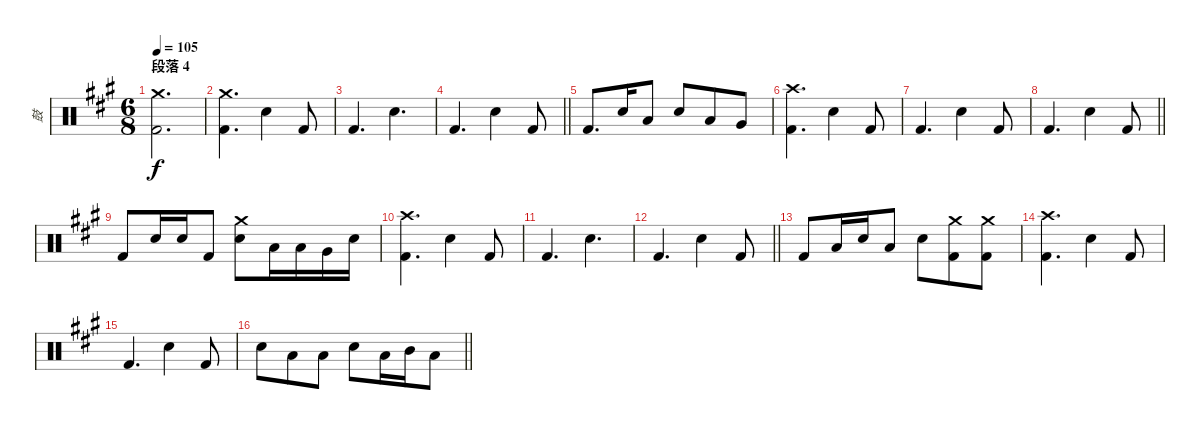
\track ("鼓" "鼓") {instrument percussion}
\staff {score}
\articulation defaults
\ts (6 8)
\section ("" "段落 4")
\tempo 105
\clef neutral
\ks a
("Crash medium (hit)" "Kick (hit) 2").2{d dy f} |
("Crash medium (hit)" "Kick (hit) 2").4{d} "Electric Snare (hit)".4 "Kick (hit) 2".8 |
"Kick (hit) 2".4{d} "Electric Snare (hit)".4{d} |
\barLineRight lightlight "Kick (hit) 2".4{d} "Electric Snare (hit)".4 "Kick (hit) 2".8
|
"Kick (hit) 2".8{d} "Electric Snare (hit)".16 "Low Tom (hit)".8 "Electric Snare (hit)".8 "Low Tom (hit)".8 "Very Low Tom (hit)".8 |
("Crash high (hit)" "Kick (hit) 2").4{d} "Electric Snare (hit)".4 "Kick (hit) 2".8 |
"Kick (hit) 2".4{d} "Electric Snare (hit)".4 "Kick (hit) 2".8 |
\barLineRight lightlight "Kick (hit) 2".4{d} "Electric Snare (hit)".4 "Kick (hit) 2".8
|
"Kick (hit) 2".8 "Electric Snare (hit)".16 "Electric Snare (hit)".16 "Kick (hit) 2".8 ("Crash medium (hit)" "Electric Snare (hit)").8 "Low Tom (hit)".16 "Low Tom (hit)".16 "Very Low Tom (hit)".16 "Electric Snare (hit)".16 |
("Crash high (hit)" "Kick (hit) 2").4{d} "Electric Snare (hit)".4 "Kick (hit) 2".8 |
"Kick (hit) 2".4{d} "Electric Snare (hit)".4{d} |
\barLineRight lightlight "Kick (hit) 2".4{d} "Electric Snare (hit)".4 "Kick (hit) 2".8
|
"Kick (hit) 2".8 "Low Tom (hit)".16 "Electric Snare (hit)".16 "Low Tom (hit)".8 "Electric Snare (hit)".8 ("Crash medium (hit)" "Kick (hit) 2").8 ("Crash medium (hit)" "Kick (hit) 2").8 |
("Crash high (hit)" "Kick (hit) 2").4{d} "Electric Snare (hit)".4 "Kick (hit) 2".8 |
"Kick (hit) 2".4{d} "Electric Snare (hit)".4 "Kick (hit) 2".8 |
\barLineRight lightlight "Electric Snare (hit)".8 "Low Tom (hit)".8 "Low Tom (hit)".8 "Electric Snare (hit)".8 "Low Tom (hit)".16 "Mid Tom (hit)".16 "Low Tom (hit)".8
